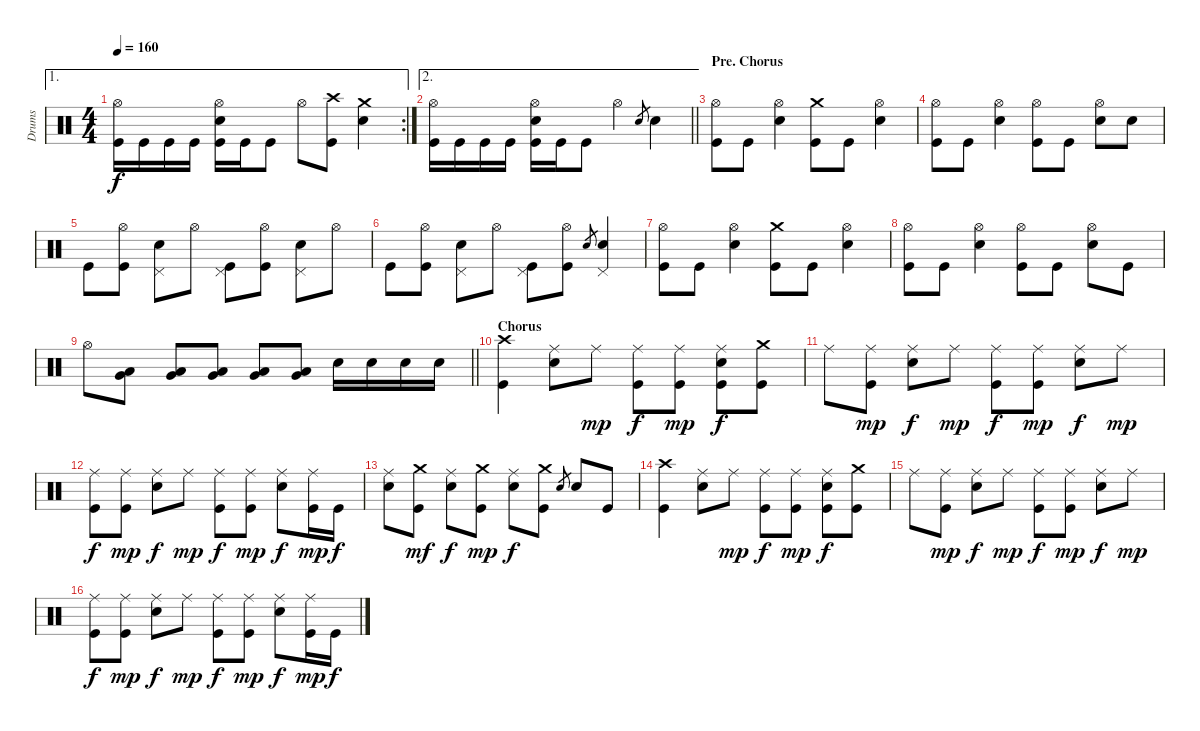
\track ("Drums" "Drums") {instrument percussion}
\staff {score}
\articulation defaults
\ae 1
\rc 2
\ts (4 4)
\tempo 160
\clef neutral
\ks c
("Hi-Hat (open)" "Kick (hit)").16{dy f} "Kick (hit)".16 "Kick (hit)".16 "Kick (hit)".16 ("Hi-Hat (open)" "Electric Snare (hit)" "Kick (hit)").16 "Kick (hit)".16 "Kick (hit)".8 "Hi-Hat (open)".8 ("Crash high (hit)" "Kick (hit)").8 ("Crash medium (hit)" "Electric Snare (hit)").4 |
\ae 2
\barLineRight lightlight
("Hi-Hat (open)" "Kick (hit)").16 "Kick (hit)".16 "Kick (hit)".16 "Kick (hit)".16 ("Hi-Hat (open)" "Electric Snare (hit)" "Kick (hit)").16 "Kick (hit)".16 "Kick (hit)".8 "Hi-Hat (open)".4 "Electric Snare (hit)".8{gr} "Electric Snare (hit)".4 |
\section ("" "Pre. Chorus")
("Hi-Hat (open)" "Kick (hit)").8 "Kick (hit)".8 ("Hi-Hat (open)" "Electric Snare (hit)").4 ("Crash medium (hit)" "Kick (hit)").8 "Kick (hit)".8 ("Hi-Hat (open)" "Electric Snare (hit)").4 |
("Hi-Hat (open)" "Kick (hit)").8 "Kick (hit)".8 ("Hi-Hat (open)" "Electric Snare (hit)").4 ("Hi-Hat (open)" "Kick (hit)").8 "Kick (hit)".8 ("Hi-Hat (open)" "Electric Snare (hit)").8 "Electric Snare (hit)".8 |
"Kick (hit)".8 ("Hi-Hat (open)" "Kick (hit)").8 ("Pedal Hi-Hat (hit)" "Electric Snare (hit)").8 "Hi-Hat (open)".8 ("Pedal Hi-Hat (hit)" "Kick (hit)").8 ("Hi-Hat (open)" "Kick (hit)").8 ("Pedal Hi-Hat (hit)" "Electric Snare (hit)").8 "Hi-Hat (open)".8 |
"Kick (hit)".8 ("Hi-Hat (open)" "Kick (hit)").8 ("Pedal Hi-Hat (hit)" "Electric Snare (hit)").8 "Hi-Hat (open)".8 ("Pedal Hi-Hat (hit)" "Kick (hit)").8 ("Hi-Hat (open)" "Kick (hit)").8 "Electric Snare (hit)".8{gr} ("Pedal Hi-Hat (hit)" "Electric Snare (hit)").4 |
("Hi-Hat (open)" "Kick (hit)").8 "Kick (hit)".8 ("Hi-Hat (open)" "Electric Snare (hit)").4 ("Crash medium (hit)" "Kick (hit)").8 "Kick (hit)".8 ("Hi-Hat (open)" "Electric Snare (hit)").4 |
("Hi-Hat (open)" "Kick (hit)").8 "Kick (hit)".8 ("Hi-Hat (open)" "Electric Snare (hit)").4 ("Hi-Hat (open)" "Kick (hit)").8 "Kick (hit)".8 ("Hi-Hat (open)" "Electric Snare (hit)").8 "Kick (hit)".8 |
\barLineRight lightlight "Hi-Hat (open)".8
("Very Low Tom (hit)" "Low Tom (hit)").8 ("Very Low Tom (hit)" "Low Tom (hit)").8 ("Very Low Tom (hit)" "Low Tom (hit)").8 ("Very Low Tom (hit)" "Low Tom (hit)").8 ("Very Low Tom (hit)" "Low Tom (hit)").8 "Electric Snare (hit)".16 "Electric Snare (hit)".16 "Electric Snare (hit)".16 "Electric Snare (hit)".16 |
\section ("" "Chorus")
("Crash high (hit)" "Kick (hit)").4 ("Ride (middle)" "Electric Snare (hit)").8 "Ride (middle)".8{dy mp} ("Ride (middle)" "Kick (hit)").8{dy f} ("Ride (middle)" "Kick (hit)").8{dy mp} ("Ride (middle)" "Electric Snare (hit)" "Kick (hit)").8{dy f} ("Crash medium (hit)" "Kick (hit)").8 |
"Ride (middle)".8 ("Ride (middle)" "Kick (hit)").8{dy mp} ("Ride (middle)" "Electric Snare (hit)").8{dy f} "Ride (middle)".8{dy mp} ("Ride (middle)" "Kick (hit)").8{dy f} ("Ride (middle)" "Kick (hit)").8{dy mp} ("Ride (middle)" "Electric Snare (hit)").8{dy f} "Ride (middle)".8{dy mp} |
("Ride (middle)" "Kick (hit)").8{dy f} ("Ride (middle)" "Kick (hit)").8{dy mp} ("Ride (middle)" "Electric Snare (hit)").8{dy f} "Ride (middle)".8{dy mp} ("Ride (middle)" "Kick (hit)").8{dy f} ("Ride (middle)" "Kick (hit)").8{dy mp} ("Ride (middle)" "Electric Snare (hit)").8{dy f} ("Ride (middle)" "Kick (hit)").16{dy mp} "Kick (hit)".16{dy f} |
("Ride (middle)" "Electric Snare (hit)").8 ("Crash medium (hit)" "Kick (hit)").8{dy mf} ("Ride (middle)" "Electric Snare (hit)").8{dy f} ("Crash medium (hit)" "Kick (hit)").8{dy mp} ("Ride (middle)" "Electric Snare (hit)").8{dy f} ("Crash medium (hit)" "Kick (hit)").8 "Electric Snare (hit)".8{gr} "Electric Snare (hit)".8 "Kick (hit)".8 |
("Crash high (hit)" "Kick (hit)").4 ("Ride (middle)" "Electric Snare (hit)").8 "Ride (middle)".8{dy mp} ("Ride (middle)" "Kick (hit)").8{dy f} ("Ride (middle)" "Kick (hit)").8{dy mp} ("Ride (middle)" "Electric Snare (hit)" "Kick (hit)").8{dy f} ("Crash medium (hit)" "Kick (hit)").8 |
"Ride (middle)".8 ("Ride (middle)" "Kick (hit)").8{dy mp} ("Ride (middle)" "Electric Snare (hit)").8{dy f} "Ride (middle)".8{dy mp} ("Ride (middle)" "Kick (hit)").8{dy f} ("Ride (middle)" "Kick (hit)").8{dy mp} ("Ride (middle)" "Electric Snare (hit)").8{dy f} "Ride (middle)".8{dy mp} |
("Ride (middle)" "Kick (hit)").8{dy f} ("Ride (middle)" "Kick (hit)").8{dy mp} ("Ride (middle)" "Electric Snare (hit)").8{dy f} "Ride (middle)".8{dy mp} ("Ride (middle)" "Kick (hit)").8{dy f} ("Ride (middle)" "Kick (hit)").8{dy mp} ("Ride (middle)" "Electric Snare (hit)").8{dy f} ("Ride (middle)" "Kick (hit)").16{dy mp} "Kick (hit)".16{dy f}
